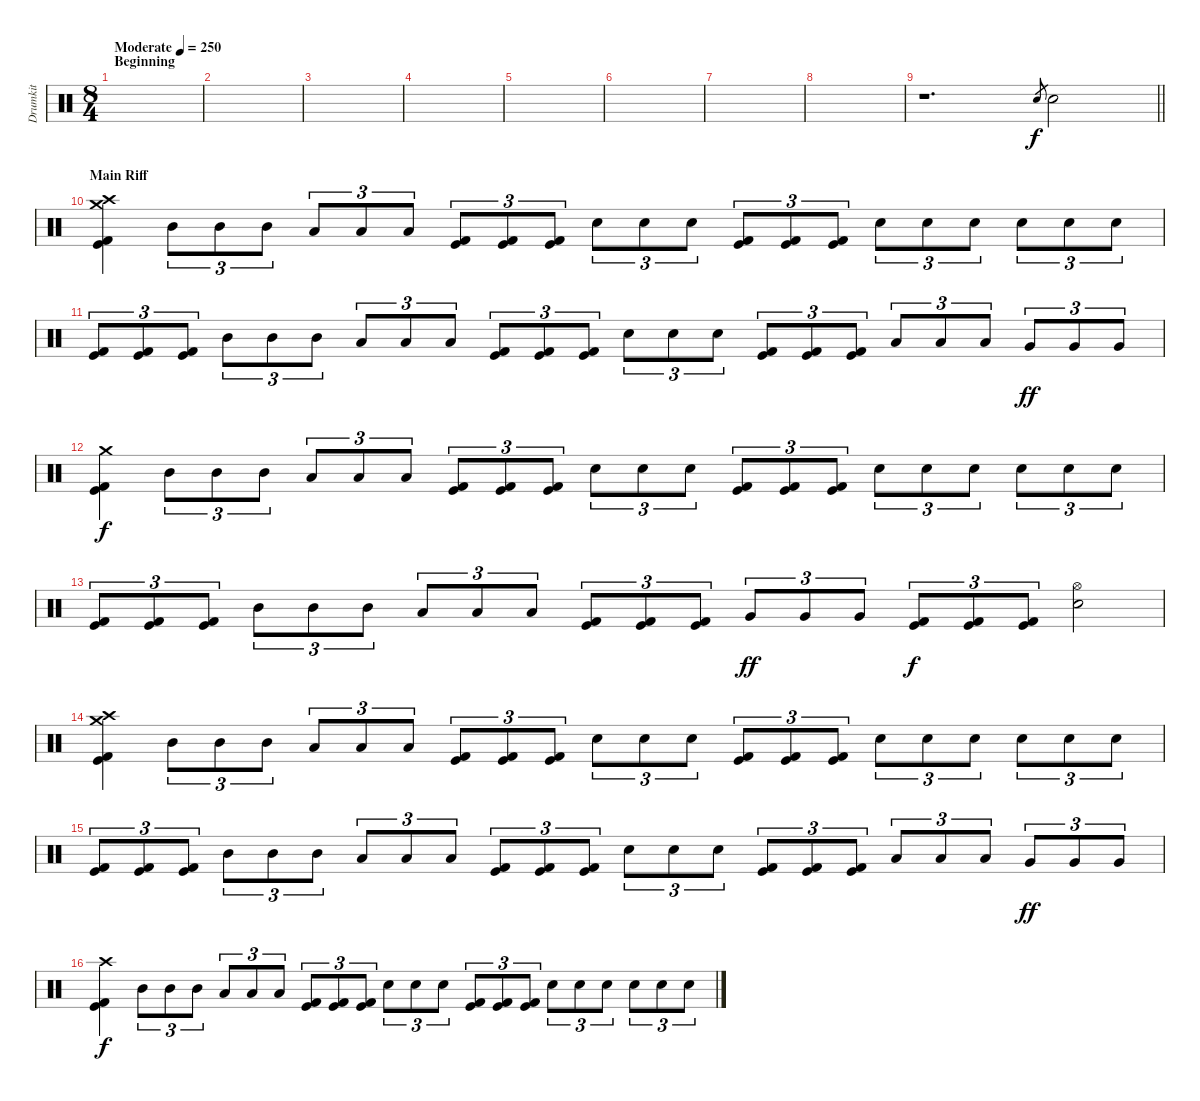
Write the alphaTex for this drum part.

\track ("Drumkit" "Drumkit") {instrument percussion}
\staff {score}
\articulation defaults
\ts (8 4)
\section ("" "Beginning")
\tempo (250 "Moderate")
\clef neutral
\ks c
|
|
|
|
|
|
|
|
\barLineRight lightlight
r.1{d} "Electric Snare (hit)".8{gr} "Electric Snare (hit)".2 |
\section ("" "Main Riff")
("Crash high (hit)" "Crash medium (hit)" "Kick (hit)" "Kick (hit) 2").4 "Mid Tom (hit)".8{tu (3 2)} "Mid Tom (hit)".8{tu (3 2)} "Mid Tom (hit)".8{tu (3 2)} "Low Tom (hit)".8{tu (3 2)} "Low Tom (hit)".8{tu (3 2)} "Low Tom (hit)".8{tu (3 2)} ("Kick (hit)" "Kick (hit) 2").8{tu (3 2)} ("Kick (hit)" "Kick (hit) 2").8{tu (3 2)} ("Kick (hit)" "Kick (hit) 2").8{tu (3 2)} "Electric Snare (hit)".8{tu (3 2)} "Electric Snare (hit)".8{tu (3 2)} "Electric Snare (hit)".8{tu (3 2)} ("Kick (hit)" "Kick (hit) 2").8{tu (3 2)} ("Kick (hit)" "Kick (hit) 2").8{tu (3 2)} ("Kick (hit)" "Kick (hit) 2").8{tu (3 2)} "Electric Snare (hit)".8{tu (3 2)} "Electric Snare (hit)".8{tu (3 2)} "Electric Snare (hit)".8{tu (3 2)} "Electric Snare (hit)".8{tu (3 2)} "Electric Snare (hit)".8{tu (3 2)} "Electric Snare (hit)".8{tu (3 2)} |
("Kick (hit)" "Kick (hit) 2").8{tu (3 2)} ("Kick (hit)" "Kick (hit) 2").8{tu (3 2)} ("Kick (hit)" "Kick (hit) 2").8{tu (3 2)} "Mid Tom (hit)".8{tu (3 2)} "Mid Tom (hit)".8{tu (3 2)} "Mid Tom (hit)".8{tu (3 2)} "Low Tom (hit)".8{tu (3 2)} "Low Tom (hit)".8{tu (3 2)} "Low Tom (hit)".8{tu (3 2)} ("Kick (hit)" "Kick (hit) 2").8{tu (3 2)} ("Kick (hit)" "Kick (hit) 2").8{tu (3 2)} ("Kick (hit)" "Kick (hit) 2").8{tu (3 2)} "Electric Snare (hit)".8{tu (3 2)} "Electric Snare (hit)".8{tu (3 2)} "Electric Snare (hit)".8{tu (3 2)} ("Kick (hit)" "Kick (hit) 2").8{tu (3 2)} ("Kick (hit)" "Kick (hit) 2").8{tu (3 2)} ("Kick (hit)" "Kick (hit) 2").8{tu (3 2)} "Low Tom (hit)".8{tu (3 2)} "Low Tom (hit)".8{tu (3 2)} "Low Tom (hit)".8{tu (3 2)} "Very Low Tom (hit)".8{tu (3 2) dy ff} "Very Low Tom (hit)".8{tu (3 2)} "Very Low Tom (hit)".8{tu (3 2)} |
("Crash medium (hit)" "Kick (hit)" "Kick (hit) 2").4{dy f} "Mid Tom (hit)".8{tu (3 2)} "Mid Tom (hit)".8{tu (3 2)} "Mid Tom (hit)".8{tu (3 2)} "Low Tom (hit)".8{tu (3 2)} "Low Tom (hit)".8{tu (3 2)} "Low Tom (hit)".8{tu (3 2)} ("Kick (hit)" "Kick (hit) 2").8{tu (3 2)} ("Kick (hit)" "Kick (hit) 2").8{tu (3 2)} ("Kick (hit)" "Kick (hit) 2").8{tu (3 2)} "Electric Snare (hit)".8{tu (3 2)} "Electric Snare (hit)".8{tu (3 2)} "Electric Snare (hit)".8{tu (3 2)} ("Kick (hit)" "Kick (hit) 2").8{tu (3 2)} ("Kick (hit)" "Kick (hit) 2").8{tu (3 2)} ("Kick (hit)" "Kick (hit) 2").8{tu (3 2)} "Electric Snare (hit)".8{tu (3 2)} "Electric Snare (hit)".8{tu (3 2)} "Electric Snare (hit)".8{tu (3 2)} "Electric Snare (hit)".8{tu (3 2)} "Electric Snare (hit)".8{tu (3 2)} "Electric Snare (hit)".8{tu (3 2)} |
("Kick (hit)" "Kick (hit) 2").8{tu (3 2)} ("Kick (hit)" "Kick (hit) 2").8{tu (3 2)} ("Kick (hit)" "Kick (hit) 2").8{tu (3 2)} "Mid Tom (hit)".8{tu (3 2)} "Mid Tom (hit)".8{tu (3 2)} "Mid Tom (hit)".8{tu (3 2)} "Low Tom (hit)".8{tu (3 2)} "Low Tom (hit)".8{tu (3 2)} "Low Tom (hit)".8{tu (3 2)} ("Kick (hit)" "Kick (hit) 2").8{tu (3 2)} ("Kick (hit)" "Kick (hit) 2").8{tu (3 2)} ("Kick (hit)" "Kick (hit) 2").8{tu (3 2)} "Very Low Tom (hit)".8{tu (3 2) dy ff} "Very Low Tom (hit)".8{tu (3 2)} "Very Low Tom (hit)".8{tu (3 2)} ("Kick (hit)" "Kick (hit) 2").8{tu (3 2) dy f} ("Kick (hit)" "Kick (hit) 2").8{tu (3 2)} ("Kick (hit)" "Kick (hit) 2").8{tu (3 2)} ("Hi-Hat (open)" "Electric Snare (hit)").2 |
("Crash high (hit)" "Crash medium (hit)" "Kick (hit)" "Kick (hit) 2").4 "Mid Tom (hit)".8{tu (3 2)} "Mid Tom (hit)".8{tu (3 2)} "Mid Tom (hit)".8{tu (3 2)} "Low Tom (hit)".8{tu (3 2)} "Low Tom (hit)".8{tu (3 2)} "Low Tom (hit)".8{tu (3 2)} ("Kick (hit)" "Kick (hit) 2").8{tu (3 2)} ("Kick (hit)" "Kick (hit) 2").8{tu (3 2)} ("Kick (hit)" "Kick (hit) 2").8{tu (3 2)} "Electric Snare (hit)".8{tu (3 2)} "Electric Snare (hit)".8{tu (3 2)} "Electric Snare (hit)".8{tu (3 2)} ("Kick (hit)" "Kick (hit) 2").8{tu (3 2)} ("Kick (hit)" "Kick (hit) 2").8{tu (3 2)} ("Kick (hit)" "Kick (hit) 2").8{tu (3 2)} "Electric Snare (hit)".8{tu (3 2)} "Electric Snare (hit)".8{tu (3 2)} "Electric Snare (hit)".8{tu (3 2)} "Electric Snare (hit)".8{tu (3 2)} "Electric Snare (hit)".8{tu (3 2)} "Electric Snare (hit)".8{tu (3 2)} |
("Kick (hit)" "Kick (hit) 2").8{tu (3 2)} ("Kick (hit)" "Kick (hit) 2").8{tu (3 2)} ("Kick (hit)" "Kick (hit) 2").8{tu (3 2)} "Mid Tom (hit)".8{tu (3 2)} "Mid Tom (hit)".8{tu (3 2)} "Mid Tom (hit)".8{tu (3 2)} "Low Tom (hit)".8{tu (3 2)} "Low Tom (hit)".8{tu (3 2)} "Low Tom (hit)".8{tu (3 2)} ("Kick (hit)" "Kick (hit) 2").8{tu (3 2)} ("Kick (hit)" "Kick (hit) 2").8{tu (3 2)} ("Kick (hit)" "Kick (hit) 2").8{tu (3 2)} "Electric Snare (hit)".8{tu (3 2)} "Electric Snare (hit)".8{tu (3 2)} "Electric Snare (hit)".8{tu (3 2)} ("Kick (hit)" "Kick (hit) 2").8{tu (3 2)} ("Kick (hit)" "Kick (hit) 2").8{tu (3 2)} ("Kick (hit)" "Kick (hit) 2").8{tu (3 2)} "Low Tom (hit)".8{tu (3 2)} "Low Tom (hit)".8{tu (3 2)} "Low Tom (hit)".8{tu (3 2)} "Very Low Tom (hit)".8{tu (3 2) dy ff} "Very Low Tom (hit)".8{tu (3 2)} "Very Low Tom (hit)".8{tu (3 2)} |
("Crash high (hit)" "Kick (hit)" "Kick (hit) 2").4{dy f} "Mid Tom (hit)".8{tu (3 2)} "Mid Tom (hit)".8{tu (3 2)} "Mid Tom (hit)".8{tu (3 2)} "Low Tom (hit)".8{tu (3 2)} "Low Tom (hit)".8{tu (3 2)} "Low Tom (hit)".8{tu (3 2)} ("Kick (hit)" "Kick (hit) 2").8{tu (3 2)} ("Kick (hit)" "Kick (hit) 2").8{tu (3 2)} ("Kick (hit)" "Kick (hit) 2").8{tu (3 2)} "Electric Snare (hit)".8{tu (3 2)} "Electric Snare (hit)".8{tu (3 2)} "Electric Snare (hit)".8{tu (3 2)} ("Kick (hit)" "Kick (hit) 2").8{tu (3 2)} ("Kick (hit)" "Kick (hit) 2").8{tu (3 2)} ("Kick (hit)" "Kick (hit) 2").8{tu (3 2)} "Electric Snare (hit)".8{tu (3 2)} "Electric Snare (hit)".8{tu (3 2)} "Electric Snare (hit)".8{tu (3 2)} "Electric Snare (hit)".8{tu (3 2)} "Electric Snare (hit)".8{tu (3 2)} "Electric Snare (hit)".8{tu (3 2)}
